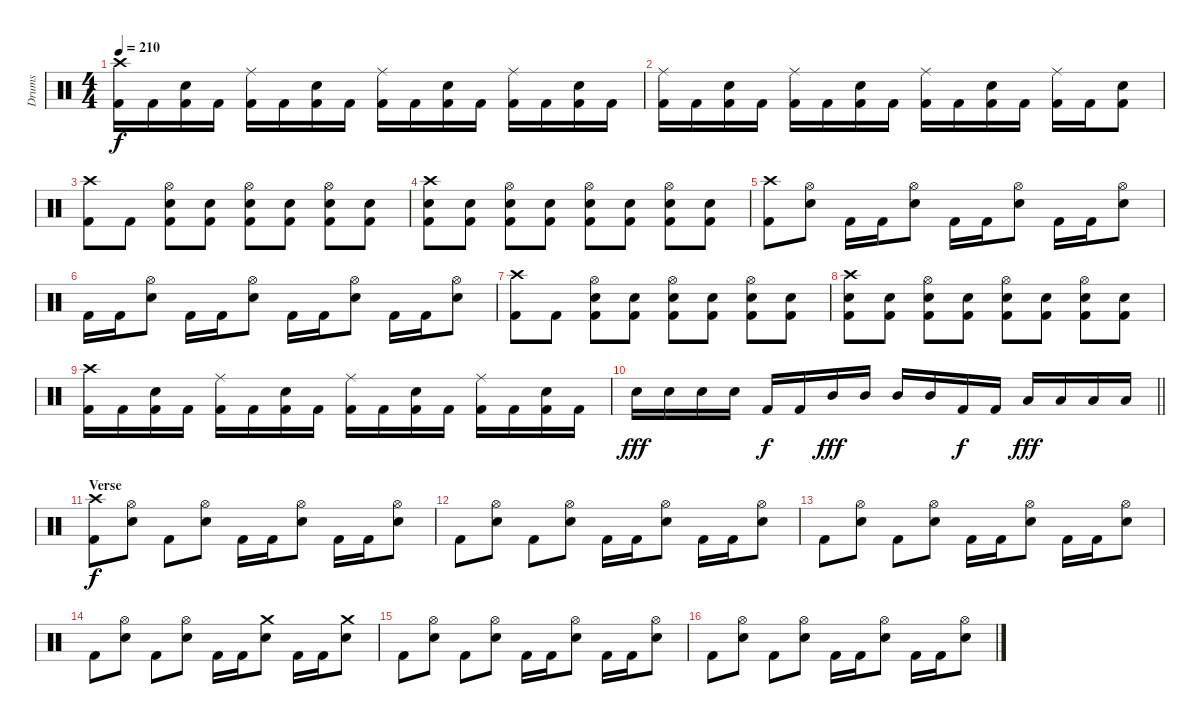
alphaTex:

\track ("Drums" "Drums") {instrument percussion}
\staff {score}
\articulation defaults
\ts (4 4)
\tempo 210
\clef neutral
\ks c
("Crash high (hit)" "Kick (hit) 2").16{dy f} "Kick (hit) 2".16 ("Snare (hit) 2" "Kick (hit) 2").16 "Kick (hit) 2".16 ("Ride (middle)" "Kick (hit) 2").16 "Kick (hit) 2".16 ("Snare (hit) 2" "Kick (hit) 2").16 "Kick (hit) 2".16 ("Ride (middle)" "Kick (hit) 2").16 "Kick (hit) 2".16 ("Snare (hit) 2" "Kick (hit) 2").16 "Kick (hit) 2".16 ("Ride (middle)" "Kick (hit) 2").16 "Kick (hit) 2".16 ("Snare (hit) 2" "Kick (hit) 2").16 "Kick (hit) 2".16 |
("Ride (middle)" "Kick (hit) 2").16 "Kick (hit) 2".16 ("Snare (hit) 2" "Kick (hit) 2").16 "Kick (hit) 2".16 ("Ride (middle)" "Kick (hit) 2").16 "Kick (hit) 2".16 ("Snare (hit) 2" "Kick (hit) 2").16 "Kick (hit) 2".16 ("Ride (middle)" "Kick (hit) 2").16 "Kick (hit) 2".16 ("Snare (hit) 2" "Kick (hit) 2").16 "Kick (hit) 2".16 ("Ride (middle)" "Kick (hit) 2").16 "Kick (hit) 2".16 ("Snare (hit) 2" "Kick (hit) 2").8 |
("Crash high (hit)" "Kick (hit) 2").8 "Kick (hit) 2".8 ("Hi-Hat (open)" "Snare (hit) 2" "Kick (hit) 2").8 ("Snare (hit) 2" "Kick (hit) 2").8 ("Hi-Hat (open)" "Snare (hit) 2" "Kick (hit) 2").8 ("Snare (hit) 2" "Kick (hit) 2").8 ("Hi-Hat (open)" "Snare (hit) 2" "Kick (hit) 2").8 ("Snare (hit) 2" "Kick (hit) 2").8 |
("Crash high (hit)" "Snare (hit) 2" "Kick (hit) 2").8 ("Snare (hit) 2" "Kick (hit) 2").8 ("Hi-Hat (open)" "Snare (hit) 2" "Kick (hit) 2").8 ("Snare (hit) 2" "Kick (hit) 2").8 ("Hi-Hat (open)" "Snare (hit) 2" "Kick (hit) 2").8 ("Snare (hit) 2" "Kick (hit) 2").8 ("Hi-Hat (open)" "Snare (hit) 2" "Kick (hit) 2").8 ("Snare (hit) 2" "Kick (hit) 2").8 |
("Crash high (hit)" "Kick (hit) 2").8 ("Hi-Hat (open)" "Snare (hit) 2").8 "Kick (hit) 2".16 "Kick (hit) 2".16 ("Hi-Hat (open)" "Snare (hit) 2").8 "Kick (hit) 2".16 "Kick (hit) 2".16 ("Hi-Hat (open)" "Snare (hit) 2").8 "Kick (hit) 2".16 "Kick (hit) 2".16 ("Hi-Hat (open)" "Snare (hit) 2").8 |
"Kick (hit) 2".16 "Kick (hit) 2".16 ("Hi-Hat (open)" "Snare (hit) 2").8 "Kick (hit) 2".16 "Kick (hit) 2".16 ("Hi-Hat (open)" "Snare (hit) 2").8 "Kick (hit) 2".16 "Kick (hit) 2".16 ("Hi-Hat (open)" "Snare (hit) 2").8 "Kick (hit) 2".16 "Kick (hit) 2".16 ("Hi-Hat (open)" "Snare (hit) 2").8 |
("Crash high (hit)" "Kick (hit) 2").8 "Kick (hit) 2".8 ("Hi-Hat (open)" "Snare (hit) 2" "Kick (hit) 2").8 ("Snare (hit) 2" "Kick (hit) 2").8 ("Hi-Hat (open)" "Snare (hit) 2" "Kick (hit) 2").8 ("Snare (hit) 2" "Kick (hit) 2").8 ("Hi-Hat (open)" "Snare (hit) 2" "Kick (hit) 2").8 ("Snare (hit) 2" "Kick (hit) 2").8 |
("Crash high (hit)" "Snare (hit) 2" "Kick (hit) 2").8 ("Snare (hit) 2" "Kick (hit) 2").8 ("Hi-Hat (open)" "Snare (hit) 2" "Kick (hit) 2").8 ("Snare (hit) 2" "Kick (hit) 2").8 ("Hi-Hat (open)" "Snare (hit) 2" "Kick (hit) 2").8 ("Snare (hit) 2" "Kick (hit) 2").8 ("Hi-Hat (open)" "Snare (hit) 2" "Kick (hit) 2").8 ("Snare (hit) 2" "Kick (hit) 2").8 |
("Crash high (hit)" "Kick (hit) 2").16 "Kick (hit) 2".16 ("Snare (hit) 2" "Kick (hit) 2").16 "Kick (hit) 2".16 ("Ride (middle)" "Kick (hit) 2").16 "Kick (hit) 2".16 ("Snare (hit) 2" "Kick (hit) 2").16 "Kick (hit) 2".16 ("Ride (middle)" "Kick (hit) 2").16 "Kick (hit) 2".16 ("Snare (hit) 2" "Kick (hit) 2").16 "Kick (hit) 2".16 ("Ride (middle)" "Kick (hit) 2").16 "Kick (hit) 2".16 ("Snare (hit) 2" "Kick (hit) 2").16 "Kick (hit) 2".16 |
\barLineRight lightlight "Snare (hit) 2".16{dy fff} "Snare (hit) 2".16 "Snare (hit) 2".16 "Snare (hit) 2".16 "Kick (hit) 2".16{dy f} "Kick (hit) 2".16 "Mid Tom (hit)".16{dy fff} "Mid Tom (hit)".16 "Mid Tom (hit)".16 "Mid Tom (hit)".16 "Kick (hit) 2".16{dy f} "Kick (hit) 2".16 "Low Tom (hit)".16{dy fff} "Low Tom (hit)".16 "Low Tom (hit)".16 "Low Tom (hit)".16
|
\section ("" "Verse")
("Crash high (hit)" "Kick (hit) 2").8{dy f} ("Hi-Hat (open)" "Snare (hit) 2").8 "Kick (hit) 2".8 ("Hi-Hat (open)" "Snare (hit) 2").8 "Kick (hit) 2".16 "Kick (hit) 2".16 ("Hi-Hat (open)" "Snare (hit) 2").8 "Kick (hit) 2".16 "Kick (hit) 2".16 ("Hi-Hat (open)" "Snare (hit) 2").8 |
"Kick (hit) 2".8 ("Hi-Hat (open)" "Snare (hit) 2").8 "Kick (hit) 2".8 ("Hi-Hat (open)" "Snare (hit) 2").8 "Kick (hit) 2".16 "Kick (hit) 2".16 ("Hi-Hat (open)" "Snare (hit) 2").8 "Kick (hit) 2".16 "Kick (hit) 2".16 ("Hi-Hat (open)" "Snare (hit) 2").8 |
"Kick (hit) 2".8 ("Hi-Hat (open)" "Snare (hit) 2").8 "Kick (hit) 2".8 ("Hi-Hat (open)" "Snare (hit) 2").8 "Kick (hit) 2".16 "Kick (hit) 2".16 ("Hi-Hat (open)" "Snare (hit) 2").8 "Kick (hit) 2".16 "Kick (hit) 2".16 ("Hi-Hat (open)" "Snare (hit) 2").8 |
"Kick (hit) 2".8 ("Hi-Hat (open)" "Snare (hit) 2").8 "Kick (hit) 2".8 ("Hi-Hat (open)" "Snare (hit) 2").8 "Kick (hit) 2".16 "Kick (hit) 2".16 ("Crash medium (hit)" "Snare (hit) 2").8 "Kick (hit) 2".16 "Kick (hit) 2".16 ("Crash medium (hit)" "Snare (hit) 2").8 |
"Kick (hit) 2".8 ("Hi-Hat (open)" "Snare (hit) 2").8 "Kick (hit) 2".8 ("Hi-Hat (open)" "Snare (hit) 2").8 "Kick (hit) 2".16 "Kick (hit) 2".16 ("Hi-Hat (open)" "Snare (hit) 2").8 "Kick (hit) 2".16 "Kick (hit) 2".16 ("Hi-Hat (open)" "Snare (hit) 2").8 |
"Kick (hit) 2".8 ("Hi-Hat (open)" "Snare (hit) 2").8 "Kick (hit) 2".8 ("Hi-Hat (open)" "Snare (hit) 2").8 "Kick (hit) 2".16 "Kick (hit) 2".16 ("Hi-Hat (open)" "Snare (hit) 2").8 "Kick (hit) 2".16 "Kick (hit) 2".16 ("Hi-Hat (open)" "Snare (hit) 2").8
